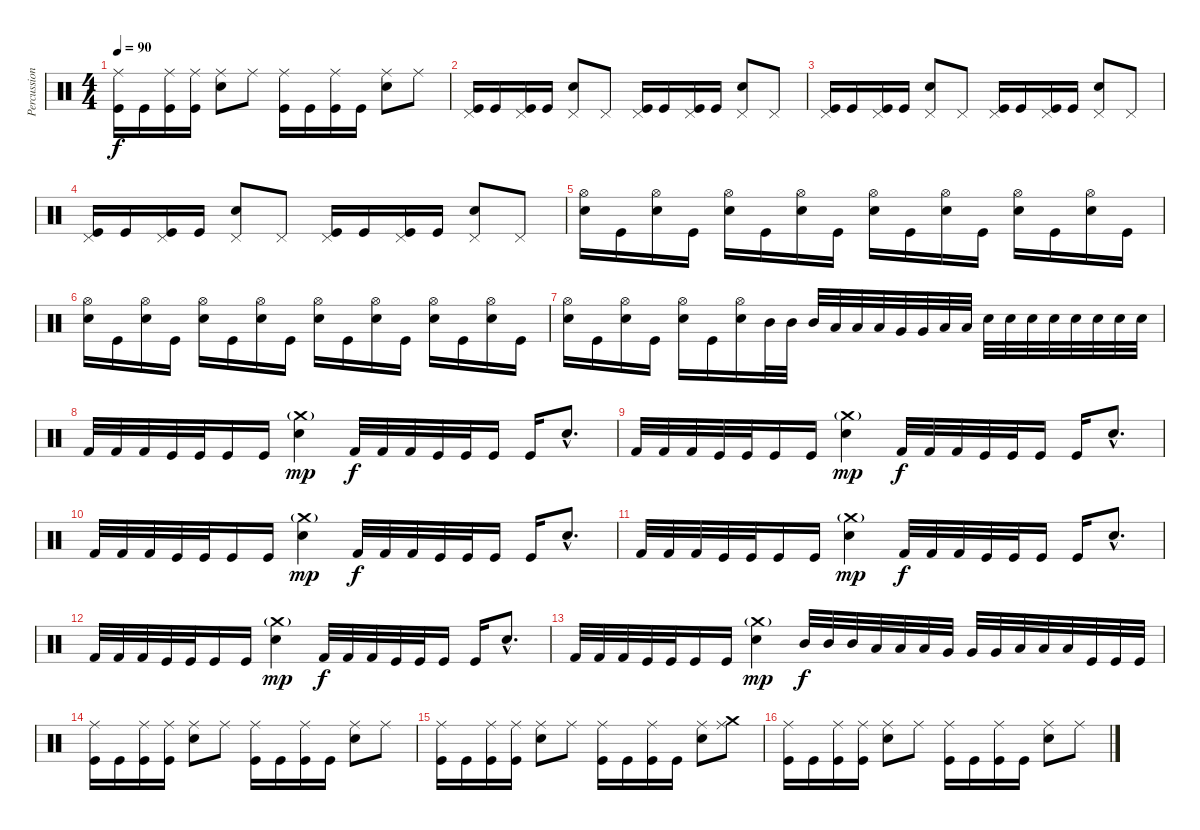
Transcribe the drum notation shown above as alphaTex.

\track ("Percussions" "Percussion") {instrument percussion}
\staff {score}
\articulation defaults
\ts (4 4)
\tempo 90
\clef neutral
\ks c
("Ride (middle)" "Kick (hit)").16{dy f} "Kick (hit)".16 ("Ride (middle)" "Kick (hit)").16 ("Ride (middle)" "Kick (hit)").16 ("Ride (middle)" "Electric Snare (hit)").8 "Ride (middle)".8 ("Ride (middle)" "Kick (hit)").16 "Kick (hit)".16 ("Ride (middle)" "Kick (hit)").16 "Kick (hit)".16 ("Ride (middle)" "Electric Snare (hit)").8 "Ride (middle)".8 |
("Pedal Hi-Hat (hit)" "Kick (hit)").16 "Kick (hit)".16 ("Pedal Hi-Hat (hit)" "Kick (hit)").16 "Kick (hit)".16 ("Pedal Hi-Hat (hit)" "Electric Snare (hit)").8 "Pedal Hi-Hat (hit)".8 ("Pedal Hi-Hat (hit)" "Kick (hit)").16 "Kick (hit)".16 ("Pedal Hi-Hat (hit)" "Kick (hit)").16 "Kick (hit)".16 ("Pedal Hi-Hat (hit)" "Electric Snare (hit)").8 "Pedal Hi-Hat (hit)".8 |
("Pedal Hi-Hat (hit)" "Kick (hit)").16 "Kick (hit)".16 ("Pedal Hi-Hat (hit)" "Kick (hit)").16 "Kick (hit)".16 ("Pedal Hi-Hat (hit)" "Electric Snare (hit)").8 "Pedal Hi-Hat (hit)".8 ("Pedal Hi-Hat (hit)" "Kick (hit)").16 "Kick (hit)".16 ("Pedal Hi-Hat (hit)" "Kick (hit)").16 "Kick (hit)".16 ("Pedal Hi-Hat (hit)" "Electric Snare (hit)").8 "Pedal Hi-Hat (hit)".8 |
("Pedal Hi-Hat (hit)" "Kick (hit)").16 "Kick (hit)".16 ("Pedal Hi-Hat (hit)" "Kick (hit)").16 "Kick (hit)".16 ("Pedal Hi-Hat (hit)" "Electric Snare (hit)").8 "Pedal Hi-Hat (hit)".8 ("Pedal Hi-Hat (hit)" "Kick (hit)").16 "Kick (hit)".16 ("Pedal Hi-Hat (hit)" "Kick (hit)").16 "Kick (hit)".16 ("Pedal Hi-Hat (hit)" "Electric Snare (hit)").8 "Pedal Hi-Hat (hit)".8 |
("Hi-Hat (open)" "Electric Snare (hit)").16 "Kick (hit)".16 ("Hi-Hat (open)" "Electric Snare (hit)").16 "Kick (hit)".16 ("Hi-Hat (open)" "Electric Snare (hit)").16 "Kick (hit)".16 ("Hi-Hat (open)" "Electric Snare (hit)").16 "Kick (hit)".16 ("Hi-Hat (open)" "Electric Snare (hit)").16 "Kick (hit)".16 ("Hi-Hat (open)" "Electric Snare (hit)").16 "Kick (hit)".16 ("Hi-Hat (open)" "Electric Snare (hit)").16 "Kick (hit)".16 ("Hi-Hat (open)" "Electric Snare (hit)").16 "Kick (hit)".16 |
("Hi-Hat (open)" "Electric Snare (hit)").16 "Kick (hit)".16 ("Hi-Hat (open)" "Electric Snare (hit)").16 "Kick (hit)".16 ("Hi-Hat (open)" "Electric Snare (hit)").16 "Kick (hit)".16 ("Hi-Hat (open)" "Electric Snare (hit)").16 "Kick (hit)".16 ("Hi-Hat (open)" "Electric Snare (hit)").16 "Kick (hit)".16 ("Hi-Hat (open)" "Electric Snare (hit)").16 "Kick (hit)".16 ("Hi-Hat (open)" "Electric Snare (hit)").16 "Kick (hit)".16 ("Hi-Hat (open)" "Electric Snare (hit)").16 "Kick (hit)".16 |
("Hi-Hat (open)" "Electric Snare (hit)").16 "Kick (hit)".16 ("Hi-Hat (open)" "Electric Snare (hit)").16 "Kick (hit)".16 ("Hi-Hat (open)" "Electric Snare (hit)").16 "Kick (hit)".16 ("Hi-Hat (open)" "Electric Snare (hit)").16 "Mid Tom (hit)".32 "Mid Tom (hit)".32 "Mid Tom (hit)".32 "Low Tom (hit)".32 "Low Tom (hit)".32 "Low Tom (hit)".32 "Very Low Tom (hit)".32 "Very Low Tom (hit)".32 "Low Floor Tom (hit)".32 "Low Floor Tom (hit)".32 "Snare (hit) 2".32 "Snare (hit) 2".32 "Snare (hit) 2".32 "Snare (hit) 2".32 "Snare (hit) 2".32 "Snare (hit) 2".32 "Snare (hit) 2".32 "Snare (hit) 2".32 |
"Kick (hit) 2".32 "Kick (hit) 2".32 "Kick (hit) 2".32 "Kick (hit)".32 "Kick (hit)".32 "Kick (hit)".16 "Kick (hit)".16 ("Crash medium (hit)"{g} "Electric Snare (hit)").4{dy mp} "Kick (hit) 2".32{dy f} "Kick (hit) 2".32 "Kick (hit) 2".32 "Kick (hit)".32 "Kick (hit)".32 "Kick (hit)".16 "Kick (hit)".16 "Electric Snare (hit)"{hac}.8{d} |
"Kick (hit) 2".32 "Kick (hit) 2".32 "Kick (hit) 2".32 "Kick (hit)".32 "Kick (hit)".32 "Kick (hit)".16 "Kick (hit)".16 ("Crash medium (hit)"{g} "Electric Snare (hit)").4{dy mp} "Kick (hit) 2".32{dy f} "Kick (hit) 2".32 "Kick (hit) 2".32 "Kick (hit)".32 "Kick (hit)".32 "Kick (hit)".16 "Kick (hit)".16 "Electric Snare (hit)"{hac}.8{d} |
"Kick (hit) 2".32 "Kick (hit) 2".32 "Kick (hit) 2".32 "Kick (hit)".32 "Kick (hit)".32 "Kick (hit)".16 "Kick (hit)".16 ("Crash medium (hit)"{g} "Electric Snare (hit)").4{dy mp} "Kick (hit) 2".32{dy f} "Kick (hit) 2".32 "Kick (hit) 2".32 "Kick (hit)".32 "Kick (hit)".32 "Kick (hit)".16 "Kick (hit)".16 "Electric Snare (hit)"{hac}.8{d} |
"Kick (hit) 2".32 "Kick (hit) 2".32 "Kick (hit) 2".32 "Kick (hit)".32 "Kick (hit)".32 "Kick (hit)".16 "Kick (hit)".16 ("Crash medium (hit)"{g} "Electric Snare (hit)").4{dy mp} "Kick (hit) 2".32{dy f} "Kick (hit) 2".32 "Kick (hit) 2".32 "Kick (hit)".32 "Kick (hit)".32 "Kick (hit)".16 "Kick (hit)".16 "Electric Snare (hit)"{hac}.8{d} |
"Kick (hit) 2".32 "Kick (hit) 2".32 "Kick (hit) 2".32 "Kick (hit)".32 "Kick (hit)".32 "Kick (hit)".16 "Kick (hit)".16 ("Crash medium (hit)"{g} "Electric Snare (hit)").4{dy mp} "Kick (hit) 2".32{dy f} "Kick (hit) 2".32 "Kick (hit) 2".32 "Kick (hit)".32 "Kick (hit)".32 "Kick (hit)".16 "Kick (hit)".16 "Electric Snare (hit)"{hac}.8{d} |
"Kick (hit) 2".32 "Kick (hit) 2".32 "Kick (hit) 2".32 "Kick (hit)".32 "Kick (hit)".32 "Kick (hit)".16 "Kick (hit)".16 ("Crash medium (hit)"{g} "Electric Snare (hit)").4{dy mp} "Mid Tom (hit)".32{dy f} "Mid Tom (hit)".32 "Mid Tom (hit)".32 "Low Tom (hit)".32 "Low Tom (hit)".32 "Low Tom (hit)".32 "Very Low Tom (hit)".32 "Very Low Tom (hit)".32 "Very Low Tom (hit)".32 "Low Floor Tom (hit)".32 "Low Floor Tom (hit)".32 "Low Floor Tom (hit)".32 "Kick (hit)".32 "Kick (hit)".32 "Kick (hit)".32 |
("Ride (middle)" "Kick (hit)").16 "Kick (hit)".16 ("Ride (middle)" "Kick (hit)").16 ("Ride (middle)" "Kick (hit)").16 ("Ride (middle)" "Electric Snare (hit)").8 "Ride (middle)".8 ("Ride (middle)" "Kick (hit)").16 "Kick (hit)".16 ("Ride (middle)" "Kick (hit)").16 "Kick (hit)".16 ("Ride (middle)" "Electric Snare (hit)").8 "Ride (middle)".8 |
("Ride (middle)" "Kick (hit)").16 "Kick (hit)".16 ("Ride (middle)" "Kick (hit)").16 ("Ride (middle)" "Kick (hit)").16 ("Ride (middle)" "Electric Snare (hit)").8 "Ride (middle)".8 ("Ride (middle)" "Kick (hit)").16 "Kick (hit)".16 ("Ride (middle)" "Kick (hit)").16 "Kick (hit)".16 ("Ride (middle)" "Electric Snare (hit)").8 ("Ride (middle)" "Crash medium (hit)").8 |
("Ride (middle)" "Kick (hit)").16 "Kick (hit)".16 ("Ride (middle)" "Kick (hit)").16 ("Ride (middle)" "Kick (hit)").16 ("Ride (middle)" "Electric Snare (hit)").8 "Ride (middle)".8 ("Ride (middle)" "Kick (hit)").16 "Kick (hit)".16 ("Ride (middle)" "Kick (hit)").16 "Kick (hit)".16 ("Ride (middle)" "Electric Snare (hit)").8 "Ride (middle)".8
